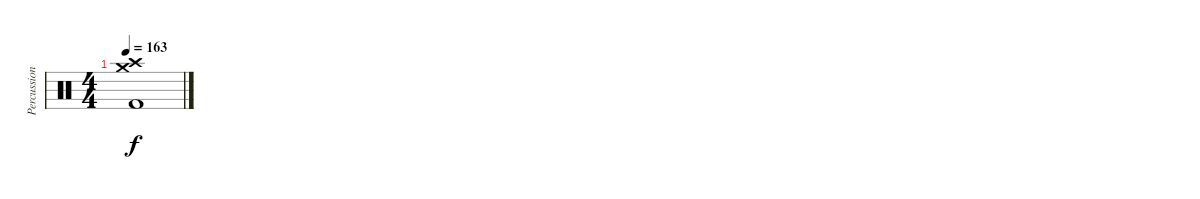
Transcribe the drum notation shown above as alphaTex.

\track ("Percussion" "Percussion") {instrument percussion}
\staff {score}
\articulation defaults
\ts (4 4)
\tempo 163
\clef neutral
\ks c
("Crash high (hit)" "Crash medium (hit)" "Kick (hit) 2").1{dy f}
